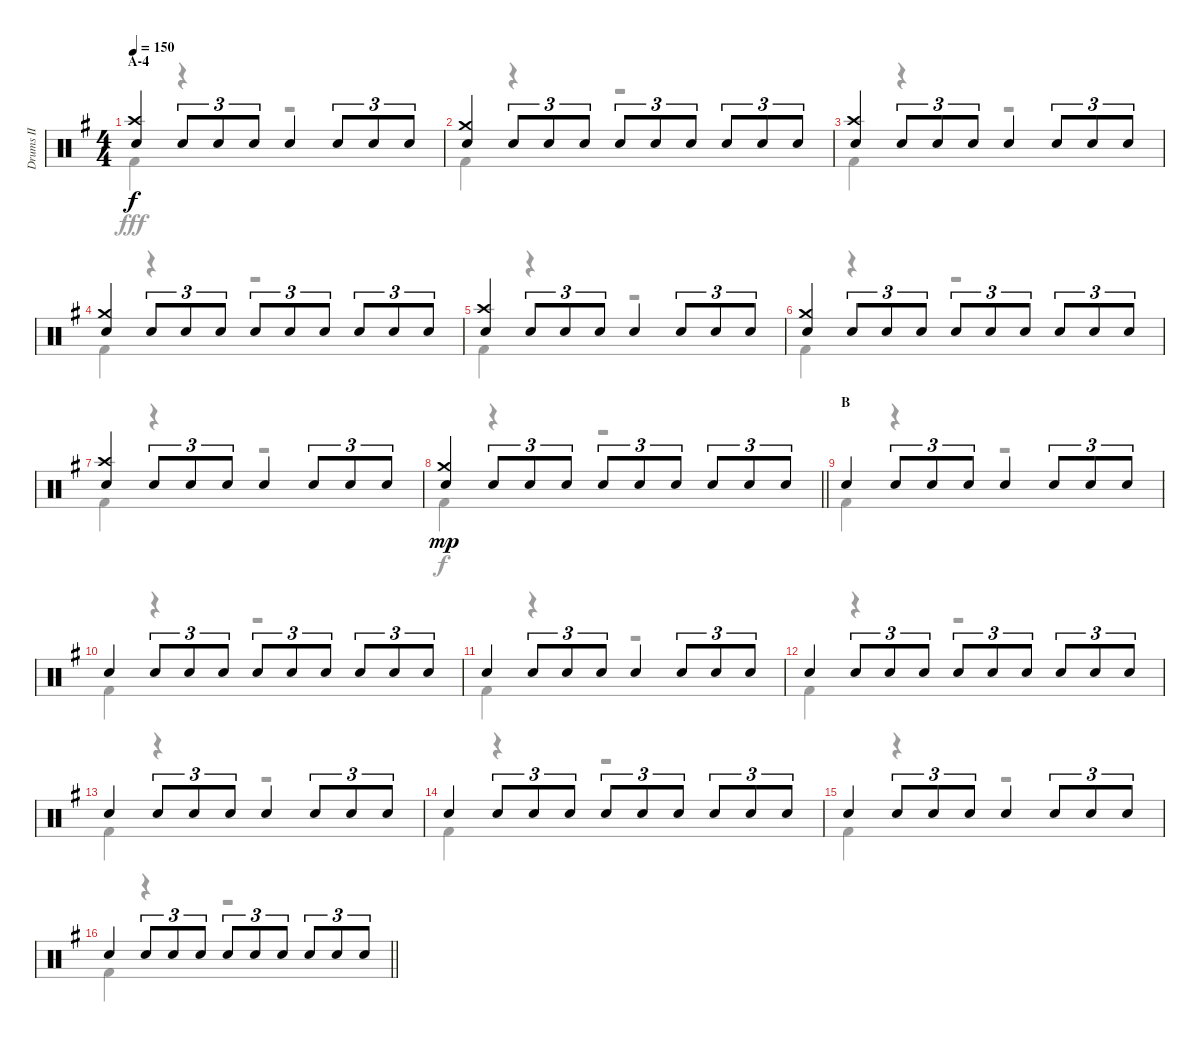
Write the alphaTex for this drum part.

\track ("Drums II" "Drums II") {instrument percussion}
\staff {score}
\articulation defaults
\voice
\ts (4 4)
\section ("" "A-4")
\tempo 150
\clef neutral
\ks g
("Crash high (hit)" "Electric Snare (hit)").4{dy f} "Electric Snare (hit)".8{tu (3 2)} "Electric Snare (hit)".8{tu (3 2)} "Electric Snare (hit)".8{tu (3 2)} "Electric Snare (hit)".4 "Electric Snare (hit)".8{tu (3 2)} "Electric Snare (hit)".8{tu (3 2)} "Electric Snare (hit)".8{tu (3 2)} |
("Crash medium (hit)" "Electric Snare (hit)").4 "Electric Snare (hit)".8{tu (3 2)} "Electric Snare (hit)".8{tu (3 2)} "Electric Snare (hit)".8{tu (3 2)} "Electric Snare (hit)".8{tu (3 2)} "Electric Snare (hit)".8{tu (3 2)} "Electric Snare (hit)".8{tu (3 2)} "Electric Snare (hit)".8{tu (3 2)} "Electric Snare (hit)".8{tu (3 2)} "Electric Snare (hit)".8{tu (3 2)} |
("Crash high (hit)" "Electric Snare (hit)").4 "Electric Snare (hit)".8{tu (3 2)} "Electric Snare (hit)".8{tu (3 2)} "Electric Snare (hit)".8{tu (3 2)} "Electric Snare (hit)".4 "Electric Snare (hit)".8{tu (3 2)} "Electric Snare (hit)".8{tu (3 2)} "Electric Snare (hit)".8{tu (3 2)} |
("Crash medium (hit)" "Electric Snare (hit)").4 "Electric Snare (hit)".8{tu (3 2)} "Electric Snare (hit)".8{tu (3 2)} "Electric Snare (hit)".8{tu (3 2)} "Electric Snare (hit)".8{tu (3 2)} "Electric Snare (hit)".8{tu (3 2)} "Electric Snare (hit)".8{tu (3 2)} "Electric Snare (hit)".8{tu (3 2)} "Electric Snare (hit)".8{tu (3 2)} "Electric Snare (hit)".8{tu (3 2)} |
("Crash high (hit)" "Electric Snare (hit)").4 "Electric Snare (hit)".8{tu (3 2)} "Electric Snare (hit)".8{tu (3 2)} "Electric Snare (hit)".8{tu (3 2)} "Electric Snare (hit)".4 "Electric Snare (hit)".8{tu (3 2)} "Electric Snare (hit)".8{tu (3 2)} "Electric Snare (hit)".8{tu (3 2)} |
("Crash medium (hit)" "Electric Snare (hit)").4 "Electric Snare (hit)".8{tu (3 2)} "Electric Snare (hit)".8{tu (3 2)} "Electric Snare (hit)".8{tu (3 2)} "Electric Snare (hit)".8{tu (3 2)} "Electric Snare (hit)".8{tu (3 2)} "Electric Snare (hit)".8{tu (3 2)} "Electric Snare (hit)".8{tu (3 2)} "Electric Snare (hit)".8{tu (3 2)} "Electric Snare (hit)".8{tu (3 2)} |
("Crash high (hit)" "Electric Snare (hit)").4 "Electric Snare (hit)".8{tu (3 2)} "Electric Snare (hit)".8{tu (3 2)} "Electric Snare (hit)".8{tu (3 2)} "Electric Snare (hit)".4 "Electric Snare (hit)".8{tu (3 2)} "Electric Snare (hit)".8{tu (3 2)} "Electric Snare (hit)".8{tu (3 2)} |
\barLineRight lightlight
("Crash medium (hit)" "Electric Snare (hit)").4{dy mp} "Electric Snare (hit)".8{tu (3 2)} "Electric Snare (hit)".8{tu (3 2)} "Electric Snare (hit)".8{tu (3 2)} "Electric Snare (hit)".8{tu (3 2)} "Electric Snare (hit)".8{tu (3 2)} "Electric Snare (hit)".8{tu (3 2)} "Electric Snare (hit)".8{tu (3 2)} "Electric Snare (hit)".8{tu (3 2)} "Electric Snare (hit)".8{tu (3 2)} |
\section ("" "B")
"Electric Snare (hit)".4 "Electric Snare (hit)".8{tu (3 2)} "Electric Snare (hit)".8{tu (3 2)} "Electric Snare (hit)".8{tu (3 2)} "Electric Snare (hit)".4 "Electric Snare (hit)".8{tu (3 2)} "Electric Snare (hit)".8{tu (3 2)} "Electric Snare (hit)".8{tu (3 2)} |
"Electric Snare (hit)".4 "Electric Snare (hit)".8{tu (3 2)} "Electric Snare (hit)".8{tu (3 2)} "Electric Snare (hit)".8{tu (3 2)} "Electric Snare (hit)".8{tu (3 2)} "Electric Snare (hit)".8{tu (3 2)} "Electric Snare (hit)".8{tu (3 2)} "Electric Snare (hit)".8{tu (3 2)} "Electric Snare (hit)".8{tu (3 2)} "Electric Snare (hit)".8{tu (3 2)} |
"Electric Snare (hit)".4 "Electric Snare (hit)".8{tu (3 2)} "Electric Snare (hit)".8{tu (3 2)} "Electric Snare (hit)".8{tu (3 2)} "Electric Snare (hit)".4 "Electric Snare (hit)".8{tu (3 2)} "Electric Snare (hit)".8{tu (3 2)} "Electric Snare (hit)".8{tu (3 2)} |
"Electric Snare (hit)".4 "Electric Snare (hit)".8{tu (3 2)} "Electric Snare (hit)".8{tu (3 2)} "Electric Snare (hit)".8{tu (3 2)} "Electric Snare (hit)".8{tu (3 2)} "Electric Snare (hit)".8{tu (3 2)} "Electric Snare (hit)".8{tu (3 2)} "Electric Snare (hit)".8{tu (3 2)} "Electric Snare (hit)".8{tu (3 2)} "Electric Snare (hit)".8{tu (3 2)} |
"Electric Snare (hit)".4 "Electric Snare (hit)".8{tu (3 2)} "Electric Snare (hit)".8{tu (3 2)} "Electric Snare (hit)".8{tu (3 2)} "Electric Snare (hit)".4 "Electric Snare (hit)".8{tu (3 2)} "Electric Snare (hit)".8{tu (3 2)} "Electric Snare (hit)".8{tu (3 2)} |
"Electric Snare (hit)".4 "Electric Snare (hit)".8{tu (3 2)} "Electric Snare (hit)".8{tu (3 2)} "Electric Snare (hit)".8{tu (3 2)} "Electric Snare (hit)".8{tu (3 2)} "Electric Snare (hit)".8{tu (3 2)} "Electric Snare (hit)".8{tu (3 2)} "Electric Snare (hit)".8{tu (3 2)} "Electric Snare (hit)".8{tu (3 2)} "Electric Snare (hit)".8{tu (3 2)} |
"Electric Snare (hit)".4 "Electric Snare (hit)".8{tu (3 2)} "Electric Snare (hit)".8{tu (3 2)} "Electric Snare (hit)".8{tu (3 2)} "Electric Snare (hit)".4 "Electric Snare (hit)".8{tu (3 2)} "Electric Snare (hit)".8{tu (3 2)} "Electric Snare (hit)".8{tu (3 2)} |
\barLineRight lightlight "Electric Snare (hit)".4 "Electric Snare (hit)".8{tu (3 2)} "Electric Snare (hit)".8{tu (3 2)} "Electric Snare (hit)".8{tu (3 2)} "Electric Snare (hit)".8{tu (3 2)} "Electric Snare (hit)".8{tu (3 2)} "Electric Snare (hit)".8{tu (3 2)} "Electric Snare (hit)".8{tu (3 2)} "Electric Snare (hit)".8{tu (3 2)} "Electric Snare (hit)".8{tu (3 2)}
\voice
\clef neutral
\ottava regular
\simile none
\ks g "Kick (hit) 2".4{dy fff}
r.4 r.2 |
"Kick (hit) 2".4 r.4 r.2 |
"Kick (hit) 2".4 r.4 r.2 |
"Kick (hit) 2".4 r.4 r.2 |
"Kick (hit) 2".4 r.4 r.2 |
"Kick (hit) 2".4 r.4 r.2 |
"Kick (hit) 2".4 r.4 r.2 |
\barLineRight lightlight "Kick (hit) 2".4{dy f}
r.4 r.2 |
"Kick (hit) 2".4 r.4 r.2 |
"Kick (hit) 2".4 r.4 r.2 |
"Kick (hit) 2".4 r.4 r.2 |
"Kick (hit) 2".4 r.4 r.2 |
"Kick (hit) 2".4 r.4 r.2 |
"Kick (hit) 2".4 r.4 r.2 |
"Kick (hit) 2".4 r.4 r.2 |
\barLineRight lightlight "Kick (hit) 2".4
r.4 r.2
